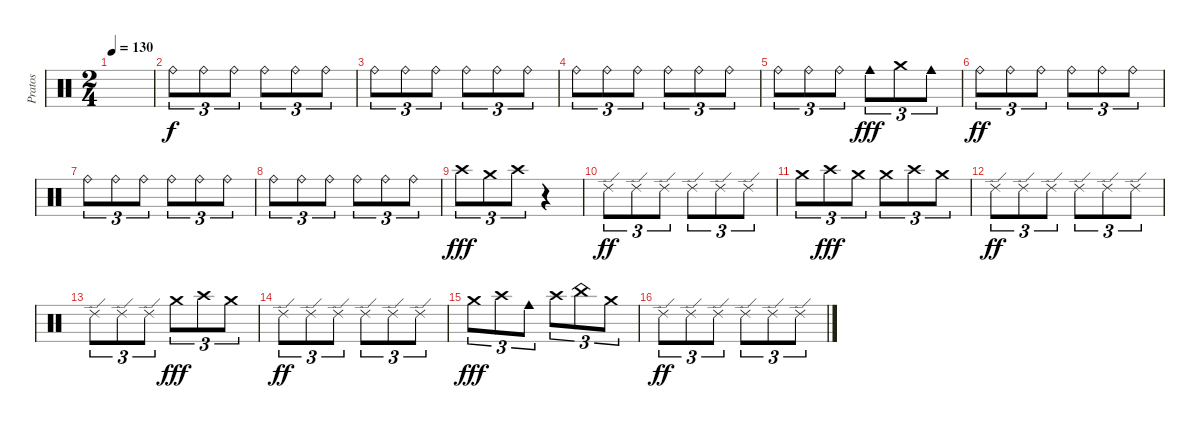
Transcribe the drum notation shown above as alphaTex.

\track ("Pratos" "Pratos") {instrument percussion}
\staff {score}
\articulation defaults
\ts (2 4)
\tempo 130
\clef neutral
\ks c
|
"Ride (bell)".8{tu (3 2)} "Ride (bell)".8{tu (3 2)} "Ride (bell)".8{tu (3 2)} "Ride (bell)".8{tu (3 2)} "Ride (bell)".8{tu (3 2)} "Ride (bell)".8{tu (3 2)} |
"Ride (bell)".8{tu (3 2)} "Ride (bell)".8{tu (3 2)} "Ride (bell)".8{tu (3 2)} "Ride (bell)".8{tu (3 2)} "Ride (bell)".8{tu (3 2)} "Ride (bell)".8{tu (3 2)} |
"Ride (bell)".8{tu (3 2)} "Ride (bell)".8{tu (3 2)} "Ride (bell)".8{tu (3 2)} "Ride (bell)".8{tu (3 2)} "Ride (bell)".8{tu (3 2)} "Ride (bell)".8{tu (3 2)} |
"Ride (bell)".8{tu (3 2)} "Ride (bell)".8{tu (3 2)} "Ride (bell)".8{tu (3 2)} "Cowbell medium (hit)".8{tu (3 2) dy fff} "Crash medium (hit)".8{tu (3 2)} "Cowbell medium (hit)".8{tu (3 2)} |
"Ride (bell)".8{tu (3 2) dy ff} "Ride (bell)".8{tu (3 2)} "Ride (bell)".8{tu (3 2)} "Ride (bell)".8{tu (3 2)} "Ride (bell)".8{tu (3 2)} "Ride (bell)".8{tu (3 2)} |
"Ride (bell)".8{tu (3 2)} "Ride (bell)".8{tu (3 2)} "Ride (bell)".8{tu (3 2)} "Ride (bell)".8{tu (3 2)} "Ride (bell)".8{tu (3 2)} "Ride (bell)".8{tu (3 2)} |
"Ride (bell)".8{tu (3 2)} "Ride (bell)".8{tu (3 2)} "Ride (bell)".8{tu (3 2)} "Ride (bell)".8{tu (3 2)} "Ride (bell)".8{tu (3 2)} "Ride (bell)".8{tu (3 2)} |
"Crash high (hit)".8{tu (3 2) dy fff} "Crash medium (hit)".8{tu (3 2)} "Crash high (hit)".8{tu (3 2)} r.4 |
"Ride (edge) 2".8{tu (3 2) dy ff} "Ride (edge) 2".8{tu (3 2)} "Ride (edge) 2".8{tu (3 2)} "Ride (edge) 2".8{tu (3 2)} "Ride (edge) 2".8{tu (3 2)} "Ride (edge) 2".8{tu (3 2)} |
"Crash medium (hit)".8{tu (3 2)} "Crash high (hit)".8{tu (3 2) dy fff} "Crash medium (hit)".8{tu (3 2)} "Crash medium (hit)".8{tu (3 2)} "Crash high (hit)".8{tu (3 2)} "Crash medium (hit)".8{tu (3 2)} |
"Ride (edge) 2".8{tu (3 2) dy ff} "Ride (edge) 2".8{tu (3 2)} "Ride (edge) 2".8{tu (3 2)} "Ride (edge) 2".8{tu (3 2)} "Ride (edge) 2".8{tu (3 2)} "Ride (edge) 2".8{tu (3 2)} |
"Ride (edge) 2".8{tu (3 2)} "Ride (edge) 2".8{tu (3 2)} "Ride (edge) 2".8{tu (3 2)} "Crash medium (hit)".8{tu (3 2) dy fff} "Crash high (hit)".8{tu (3 2)} "Crash medium (hit)".8{tu (3 2)} |
"Ride (edge) 2".8{tu (3 2) dy ff} "Ride (edge) 2".8{tu (3 2)} "Ride (edge) 2".8{tu (3 2)} "Ride (edge) 2".8{tu (3 2)} "Ride (edge) 2".8{tu (3 2)} "Ride (edge) 2".8{tu (3 2)} |
"Crash medium (hit)".8{tu (3 2) dy fff} "Crash high (hit)".8{tu (3 2)} "Cowbell medium (hit)".8{tu (3 2)} "Crash high (hit)".8{tu (3 2)} "China (hit)".8{tu (3 2)} "Crash medium (hit)".8{tu (3 2)} |
"Ride (edge) 2".8{tu (3 2) dy ff} "Ride (edge) 2".8{tu (3 2)} "Ride (edge) 2".8{tu (3 2)} "Ride (edge) 2".8{tu (3 2)} "Ride (edge) 2".8{tu (3 2)} "Ride (edge) 2".8{tu (3 2)}
